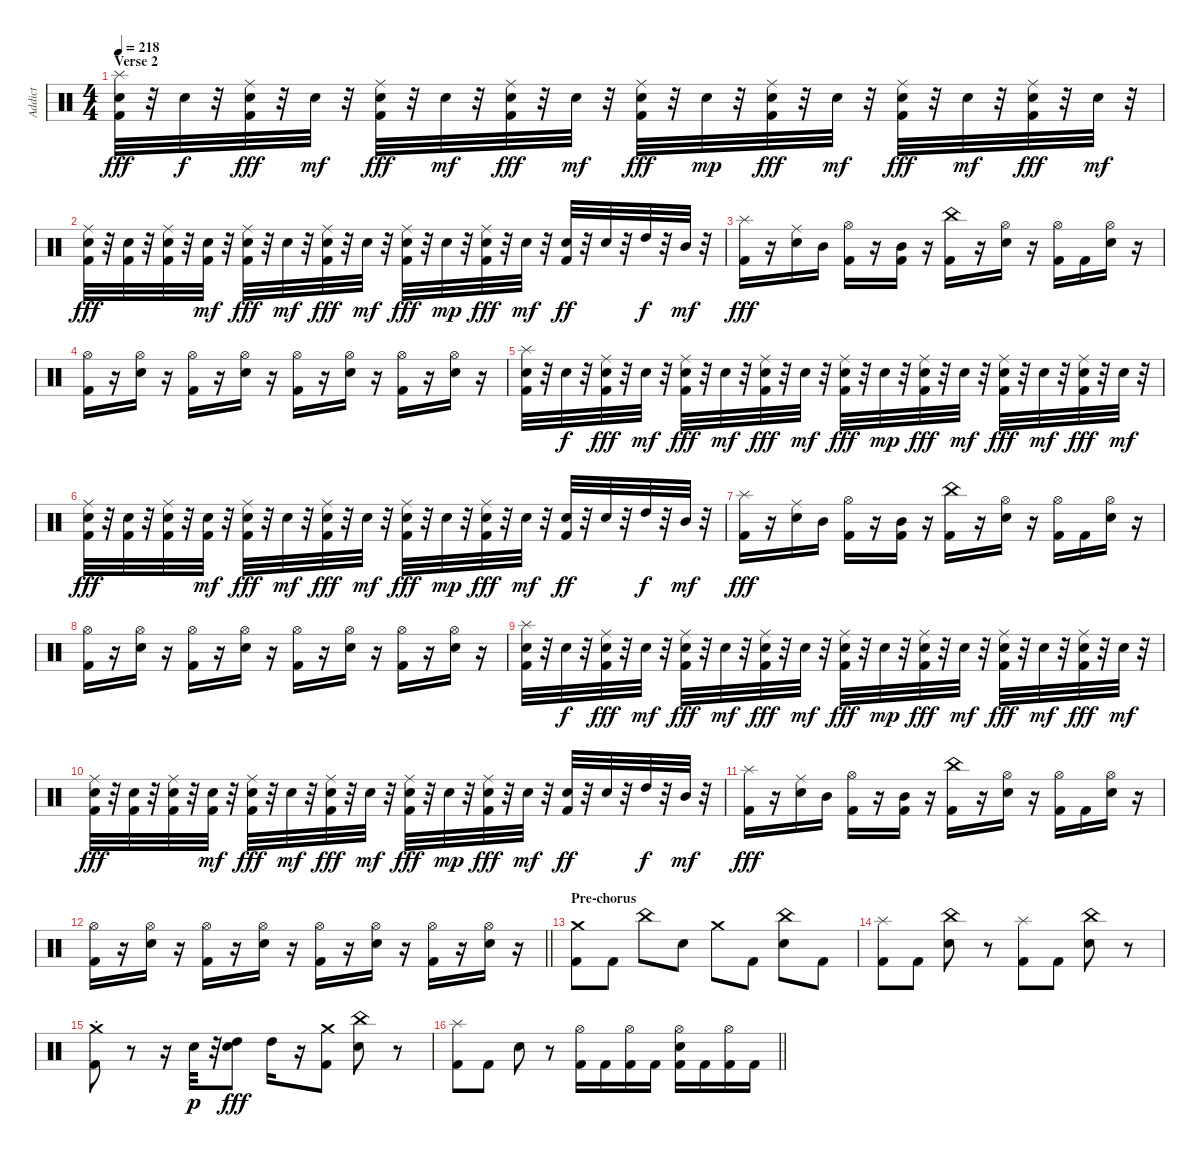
\track ("Addict" "Addict") {instrument percussion}
\staff {score}
\articulation defaults
\ts (4 4)
\section ("" "Verse 2")
\tempo 218
\clef neutral
\ks c
("Kick (hit) 2" "Snare (hit) 2" "Splash (hit)").32{dy fff} r.32 "Snare (hit) 2".32{dy f} r.32 ("Kick (hit) 2" "Snare (hit) 2" "Ride (middle)").32{dy fff} r.32 "Snare (hit) 2".32{dy mf} r.32 ("Kick (hit) 2" "Snare (hit) 2" "Ride (middle)").32{dy fff} r.32 "Snare (hit) 2".32{dy mf} r.32 ("Kick (hit) 2" "Snare (hit) 2" "Ride (middle)").32{dy fff} r.32 "Snare (hit) 2".32{dy mf} r.32 ("Kick (hit) 2" "Snare (hit) 2" "Ride (middle)").32{dy fff} r.32 "Snare (hit) 2".32{dy mp} r.32 ("Kick (hit) 2" "Snare (hit) 2" "Ride (middle)").32{dy fff} r.32 "Snare (hit) 2".32{dy mf} r.32 ("Kick (hit) 2" "Snare (hit) 2" "Ride (middle)").32{dy fff} r.32 "Snare (hit) 2".32{dy mf} r.32 ("Kick (hit) 2" "Snare (hit) 2" "Ride (middle)").32{dy fff} r.32 "Snare (hit) 2".32{dy mf} r.32 |
("Kick (hit) 2" "Snare (hit) 2" "Ride (middle)").32{dy fff} r.32 ("Kick (hit) 2" "Snare (hit) 2").32 r.32 ("Kick (hit) 2" "Snare (hit) 2" "Ride (middle)").32 r.32 ("Kick (hit) 2" "Snare (hit) 2").32{dy mf} r.32 ("Kick (hit) 2" "Snare (hit) 2" "Ride (middle)").32{dy fff} r.32 "Snare (hit) 2".32{dy mf} r.32 ("Kick (hit) 2" "Snare (hit) 2" "Ride (middle)").32{dy fff} r.32 "Snare (hit) 2".32{dy mf} r.32 ("Kick (hit) 2" "Snare (hit) 2" "Ride (middle)").32{dy fff} r.32 "Snare (hit) 2".32{dy mp} r.32 ("Kick (hit) 2" "Snare (hit) 2" "Ride (middle)").32{dy fff} r.32 "Snare (hit) 2".32{dy mf} r.32 ("Kick (hit) 2" "Snare (hit) 2").32{dy ff} r.32 "Snare (hit) 2".32 r.32 "High Tom (hit)".32{dy f} r.32 "Mid Tom (hit)".32{dy mf} r.32 |
("Kick (hit) 2" "Splash (hit)").16{dy fff} r.16 ("Snare (hit) 2" "Ride (middle)").16 "Mid Tom (hit)".16 ("Kick (hit) 2" "Hi-Hat (open)").16 r.16 ("Kick (hit) 2" "Mid Tom (hit)").16 r.16 ("Kick (hit) 2" "China (hit)").16 r.16 ("Snare (hit) 2" "Hi-Hat (open)").16 r.16 ("Kick (hit) 2" "Hi-Hat (open)").16 "Kick (hit) 2".16 ("Snare (hit) 2" "Hi-Hat (open)").16 r.16 |
("Kick (hit) 2" "Hi-Hat (open)").16 r.16 ("Snare (hit) 2" "Hi-Hat (open)").16 r.16 ("Kick (hit) 2" "Hi-Hat (open)").16 r.16 ("Snare (hit) 2" "Hi-Hat (open)").16 r.16 ("Kick (hit) 2" "Hi-Hat (open)").16 r.16 ("Snare (hit) 2" "Hi-Hat (open)").16 r.16 ("Kick (hit) 2" "Hi-Hat (open)").16 r.16 ("Snare (hit) 2" "Hi-Hat (open)").16 r.16 |
("Kick (hit) 2" "Snare (hit) 2" "Splash (hit)").32 r.32 "Snare (hit) 2".32{dy f} r.32 ("Kick (hit) 2" "Snare (hit) 2" "Ride (middle)").32{dy fff} r.32 "Snare (hit) 2".32{dy mf} r.32 ("Kick (hit) 2" "Snare (hit) 2" "Ride (middle)").32{dy fff} r.32 "Snare (hit) 2".32{dy mf} r.32 ("Kick (hit) 2" "Snare (hit) 2" "Ride (middle)").32{dy fff} r.32 "Snare (hit) 2".32{dy mf} r.32 ("Kick (hit) 2" "Snare (hit) 2" "Ride (middle)").32{dy fff} r.32 "Snare (hit) 2".32{dy mp} r.32 ("Kick (hit) 2" "Snare (hit) 2" "Ride (middle)").32{dy fff} r.32 "Snare (hit) 2".32{dy mf} r.32 ("Kick (hit) 2" "Snare (hit) 2" "Ride (middle)").32{dy fff} r.32 "Snare (hit) 2".32{dy mf} r.32 ("Kick (hit) 2" "Snare (hit) 2" "Ride (middle)").32{dy fff} r.32 "Snare (hit) 2".32{dy mf} r.32 |
("Kick (hit) 2" "Snare (hit) 2" "Ride (middle)").32{dy fff} r.32 ("Kick (hit) 2" "Snare (hit) 2").32 r.32 ("Kick (hit) 2" "Snare (hit) 2" "Ride (middle)").32 r.32 ("Kick (hit) 2" "Snare (hit) 2").32{dy mf} r.32 ("Kick (hit) 2" "Snare (hit) 2" "Ride (middle)").32{dy fff} r.32 "Snare (hit) 2".32{dy mf} r.32 ("Kick (hit) 2" "Snare (hit) 2" "Ride (middle)").32{dy fff} r.32 "Snare (hit) 2".32{dy mf} r.32 ("Kick (hit) 2" "Snare (hit) 2" "Ride (middle)").32{dy fff} r.32 "Snare (hit) 2".32{dy mp} r.32 ("Kick (hit) 2" "Snare (hit) 2" "Ride (middle)").32{dy fff} r.32 "Snare (hit) 2".32{dy mf} r.32 ("Kick (hit) 2" "Snare (hit) 2").32{dy ff} r.32 "Snare (hit) 2".32 r.32 "High Tom (hit)".32{dy f} r.32 "Mid Tom (hit)".32{dy mf} r.32 |
("Kick (hit) 2" "Splash (hit)").16{dy fff} r.16 ("Snare (hit) 2" "Ride (middle)").16 "Mid Tom (hit)".16 ("Kick (hit) 2" "Hi-Hat (open)").16 r.16 ("Kick (hit) 2" "Mid Tom (hit)").16 r.16 ("Kick (hit) 2" "China (hit)").16 r.16 ("Snare (hit) 2" "Hi-Hat (open)").16 r.16 ("Kick (hit) 2" "Hi-Hat (open)").16 "Kick (hit) 2".16 ("Snare (hit) 2" "Hi-Hat (open)").16 r.16 |
("Kick (hit) 2" "Hi-Hat (open)").16 r.16 ("Snare (hit) 2" "Hi-Hat (open)").16 r.16 ("Kick (hit) 2" "Hi-Hat (open)").16 r.16 ("Snare (hit) 2" "Hi-Hat (open)").16 r.16 ("Kick (hit) 2" "Hi-Hat (open)").16 r.16 ("Snare (hit) 2" "Hi-Hat (open)").16 r.16 ("Kick (hit) 2" "Hi-Hat (open)").16 r.16 ("Snare (hit) 2" "Hi-Hat (open)").16 r.16 |
("Kick (hit) 2" "Snare (hit) 2" "Splash (hit)").32 r.32 "Snare (hit) 2".32{dy f} r.32 ("Kick (hit) 2" "Snare (hit) 2" "Ride (middle)").32{dy fff} r.32 "Snare (hit) 2".32{dy mf} r.32 ("Kick (hit) 2" "Snare (hit) 2" "Ride (middle)").32{dy fff} r.32 "Snare (hit) 2".32{dy mf} r.32 ("Kick (hit) 2" "Snare (hit) 2" "Ride (middle)").32{dy fff} r.32 "Snare (hit) 2".32{dy mf} r.32 ("Kick (hit) 2" "Snare (hit) 2" "Ride (middle)").32{dy fff} r.32 "Snare (hit) 2".32{dy mp} r.32 ("Kick (hit) 2" "Snare (hit) 2" "Ride (middle)").32{dy fff} r.32 "Snare (hit) 2".32{dy mf} r.32 ("Kick (hit) 2" "Snare (hit) 2" "Ride (middle)").32{dy fff} r.32 "Snare (hit) 2".32{dy mf} r.32 ("Kick (hit) 2" "Snare (hit) 2" "Ride (middle)").32{dy fff} r.32 "Snare (hit) 2".32{dy mf} r.32 |
("Kick (hit) 2" "Snare (hit) 2" "Ride (middle)").32{dy fff} r.32 ("Kick (hit) 2" "Snare (hit) 2").32 r.32 ("Kick (hit) 2" "Snare (hit) 2" "Ride (middle)").32 r.32 ("Kick (hit) 2" "Snare (hit) 2").32{dy mf} r.32 ("Kick (hit) 2" "Snare (hit) 2" "Ride (middle)").32{dy fff} r.32 "Snare (hit) 2".32{dy mf} r.32 ("Kick (hit) 2" "Snare (hit) 2" "Ride (middle)").32{dy fff} r.32 "Snare (hit) 2".32{dy mf} r.32 ("Kick (hit) 2" "Snare (hit) 2" "Ride (middle)").32{dy fff} r.32 "Snare (hit) 2".32{dy mp} r.32 ("Kick (hit) 2" "Snare (hit) 2" "Ride (middle)").32{dy fff} r.32 "Snare (hit) 2".32{dy mf} r.32 ("Kick (hit) 2" "Snare (hit) 2").32{dy ff} r.32 "Snare (hit) 2".32 r.32 "High Tom (hit)".32{dy f} r.32 "Mid Tom (hit)".32{dy mf} r.32 |
("Kick (hit) 2" "Splash (hit)").16{dy fff} r.16 ("Snare (hit) 2" "Ride (middle)").16 "Mid Tom (hit)".16 ("Kick (hit) 2" "Hi-Hat (open)").16 r.16 ("Kick (hit) 2" "Mid Tom (hit)").16 r.16 ("Kick (hit) 2" "China (hit)").16 r.16 ("Snare (hit) 2" "Hi-Hat (open)").16 r.16 ("Kick (hit) 2" "Hi-Hat (open)").16 "Kick (hit) 2".16 ("Snare (hit) 2" "Hi-Hat (open)").16 r.16 |
\barLineRight lightlight
("Kick (hit) 2" "Hi-Hat (open)").16 r.16 ("Snare (hit) 2" "Hi-Hat (open)").16 r.16 ("Kick (hit) 2" "Hi-Hat (open)").16 r.16 ("Snare (hit) 2" "Hi-Hat (open)").16 r.16 ("Kick (hit) 2" "Hi-Hat (open)").16 r.16 ("Snare (hit) 2" "Hi-Hat (open)").16 r.16 ("Kick (hit) 2" "Hi-Hat (open)").16 r.16 ("Snare (hit) 2" "Hi-Hat (open)").16 r.16 |
\section ("" "Pre-chorus")
("Kick (hit) 2" "Crash medium (hit)").8 "Kick (hit) 2".8 "China (hit)".8 "Snare (hit) 2".8 "Crash medium (hit)".8 "Kick (hit) 2".8 ("Snare (hit) 2" "China (hit)").8 "Kick (hit) 2".8 |
("Kick (hit) 2" "Splash (hit)").8 "Kick (hit) 2".8 ("Snare (hit) 2" "China (hit)").8 r.8 ("Kick (hit) 2" "Splash (hit)").8 "Kick (hit) 2".8 ("Snare (hit) 2" "China (hit)").8 r.8 |
("Kick (hit) 2" "Crash medium (hit)"{st}).8 r.8 r.16 "Snare (hit) 2".32{dy p} r.32 ("Snare (hit) 2" "High Tom (hit)").8{dy fff} "High Tom (hit)".16 r.16 ("Kick (hit) 2" "Crash medium (hit)").8 ("Snare (hit) 2" "China (hit)").8 r.8 |
\barLineRight lightlight
("Kick (hit) 2" "Splash (hit)").8 "Kick (hit) 2".8 "Snare (hit) 2".8 r.8 ("Kick (hit) 2" "Hi-Hat (open)").16 "Kick (hit) 2".16 ("Kick (hit) 2" "Hi-Hat (open)").16 "Kick (hit) 2".16 ("Kick (hit) 2" "Snare (hit) 2" "Hi-Hat (open)").16 "Kick (hit) 2".16 ("Kick (hit) 2" "Hi-Hat (open)").16 "Kick (hit) 2".16
